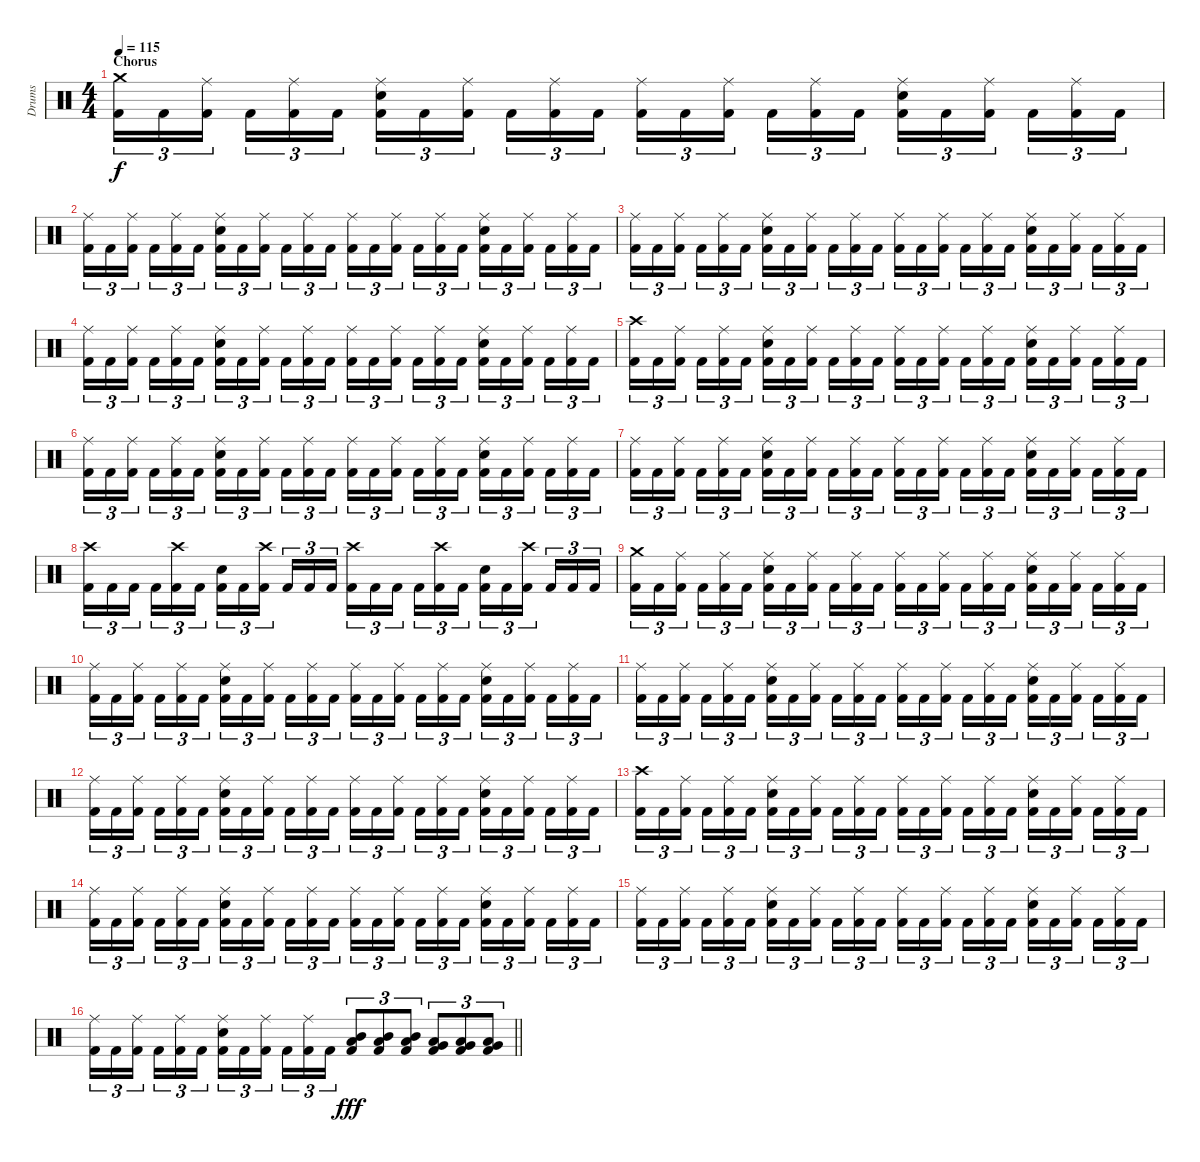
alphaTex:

\track ("Drums" "Drums") {instrument percussion}
\staff {score}
\articulation defaults
\ts (4 4)
\section ("" "Chorus")
\tempo 115
\clef neutral
\ks c
("Kick (hit) 2" "Crash medium (hit)").16{tu (3 2) dy f} "Kick (hit) 2".16{tu (3 2)} ("Kick (hit) 2" "Ride (middle)").16{tu (3 2)} "Kick (hit) 2".16{tu (3 2)} ("Kick (hit) 2" "Ride (middle)").16{tu (3 2)} "Kick (hit) 2".16{tu (3 2)} ("Kick (hit) 2" "Electric Snare (hit)" "Ride (middle)").16{tu (3 2)} "Kick (hit) 2".16{tu (3 2)} ("Kick (hit) 2" "Ride (middle)").16{tu (3 2)} "Kick (hit) 2".16{tu (3 2)} ("Kick (hit) 2" "Ride (middle)").16{tu (3 2)} "Kick (hit) 2".16{tu (3 2)} ("Kick (hit) 2" "Ride (middle)").16{tu (3 2)} "Kick (hit) 2".16{tu (3 2)} ("Kick (hit) 2" "Ride (middle)").16{tu (3 2)} "Kick (hit) 2".16{tu (3 2)} ("Kick (hit) 2" "Ride (middle)").16{tu (3 2)} "Kick (hit) 2".16{tu (3 2)} ("Kick (hit) 2" "Electric Snare (hit)" "Ride (middle)").16{tu (3 2)} "Kick (hit) 2".16{tu (3 2)} ("Kick (hit) 2" "Ride (middle)").16{tu (3 2)} "Kick (hit) 2".16{tu (3 2)} ("Kick (hit) 2" "Ride (middle)").16{tu (3 2)} "Kick (hit) 2".16{tu (3 2)} |
("Kick (hit) 2" "Ride (middle)").16{tu (3 2)} "Kick (hit) 2".16{tu (3 2)} ("Kick (hit) 2" "Ride (middle)").16{tu (3 2)} "Kick (hit) 2".16{tu (3 2)} ("Kick (hit) 2" "Ride (middle)").16{tu (3 2)} "Kick (hit) 2".16{tu (3 2)} ("Kick (hit) 2" "Electric Snare (hit)" "Ride (middle)").16{tu (3 2)} "Kick (hit) 2".16{tu (3 2)} ("Kick (hit) 2" "Ride (middle)").16{tu (3 2)} "Kick (hit) 2".16{tu (3 2)} ("Kick (hit) 2" "Ride (middle)").16{tu (3 2)} "Kick (hit) 2".16{tu (3 2)} ("Kick (hit) 2" "Ride (middle)").16{tu (3 2)} "Kick (hit) 2".16{tu (3 2)} ("Kick (hit) 2" "Ride (middle)").16{tu (3 2)} "Kick (hit) 2".16{tu (3 2)} ("Kick (hit) 2" "Ride (middle)").16{tu (3 2)} "Kick (hit) 2".16{tu (3 2)} ("Kick (hit) 2" "Electric Snare (hit)" "Ride (middle)").16{tu (3 2)} "Kick (hit) 2".16{tu (3 2)} ("Kick (hit) 2" "Ride (middle)").16{tu (3 2)} "Kick (hit) 2".16{tu (3 2)} ("Kick (hit) 2" "Ride (middle)").16{tu (3 2)} "Kick (hit) 2".16{tu (3 2)} |
("Kick (hit) 2" "Ride (middle)").16{tu (3 2)} "Kick (hit) 2".16{tu (3 2)} ("Kick (hit) 2" "Ride (middle)").16{tu (3 2)} "Kick (hit) 2".16{tu (3 2)} ("Kick (hit) 2" "Ride (middle)").16{tu (3 2)} "Kick (hit) 2".16{tu (3 2)} ("Kick (hit) 2" "Electric Snare (hit)" "Ride (middle)").16{tu (3 2)} "Kick (hit) 2".16{tu (3 2)} ("Kick (hit) 2" "Ride (middle)").16{tu (3 2)} "Kick (hit) 2".16{tu (3 2)} ("Kick (hit) 2" "Ride (middle)").16{tu (3 2)} "Kick (hit) 2".16{tu (3 2)} ("Kick (hit) 2" "Ride (middle)").16{tu (3 2)} "Kick (hit) 2".16{tu (3 2)} ("Kick (hit) 2" "Ride (middle)").16{tu (3 2)} "Kick (hit) 2".16{tu (3 2)} ("Kick (hit) 2" "Ride (middle)").16{tu (3 2)} "Kick (hit) 2".16{tu (3 2)} ("Kick (hit) 2" "Electric Snare (hit)" "Ride (middle)").16{tu (3 2)} "Kick (hit) 2".16{tu (3 2)} ("Kick (hit) 2" "Ride (middle)").16{tu (3 2)} "Kick (hit) 2".16{tu (3 2)} ("Kick (hit) 2" "Ride (middle)").16{tu (3 2)} "Kick (hit) 2".16{tu (3 2)} |
("Kick (hit) 2" "Ride (middle)").16{tu (3 2)} "Kick (hit) 2".16{tu (3 2)} ("Kick (hit) 2" "Ride (middle)").16{tu (3 2)} "Kick (hit) 2".16{tu (3 2)} ("Kick (hit) 2" "Ride (middle)").16{tu (3 2)} "Kick (hit) 2".16{tu (3 2)} ("Kick (hit) 2" "Electric Snare (hit)" "Ride (middle)").16{tu (3 2)} "Kick (hit) 2".16{tu (3 2)} ("Kick (hit) 2" "Ride (middle)").16{tu (3 2)} "Kick (hit) 2".16{tu (3 2)} ("Kick (hit) 2" "Ride (middle)").16{tu (3 2)} "Kick (hit) 2".16{tu (3 2)} ("Kick (hit) 2" "Ride (middle)").16{tu (3 2)} "Kick (hit) 2".16{tu (3 2)} ("Kick (hit) 2" "Ride (middle)").16{tu (3 2)} "Kick (hit) 2".16{tu (3 2)} ("Kick (hit) 2" "Ride (middle)").16{tu (3 2)} "Kick (hit) 2".16{tu (3 2)} ("Kick (hit) 2" "Electric Snare (hit)" "Ride (middle)").16{tu (3 2)} "Kick (hit) 2".16{tu (3 2)} ("Kick (hit) 2" "Ride (middle)").16{tu (3 2)} "Kick (hit) 2".16{tu (3 2)} ("Kick (hit) 2" "Ride (middle)").16{tu (3 2)} "Kick (hit) 2".16{tu (3 2)} |
("Kick (hit) 2" "Crash high (hit)").16{tu (3 2)} "Kick (hit) 2".16{tu (3 2)} ("Kick (hit) 2" "Ride (middle)").16{tu (3 2)} "Kick (hit) 2".16{tu (3 2)} ("Kick (hit) 2" "Ride (middle)").16{tu (3 2)} "Kick (hit) 2".16{tu (3 2)} ("Kick (hit) 2" "Electric Snare (hit)" "Ride (middle)").16{tu (3 2)} "Kick (hit) 2".16{tu (3 2)} ("Kick (hit) 2" "Ride (middle)").16{tu (3 2)} "Kick (hit) 2".16{tu (3 2)} ("Kick (hit) 2" "Ride (middle)").16{tu (3 2)} "Kick (hit) 2".16{tu (3 2)} ("Kick (hit) 2" "Ride (middle)").16{tu (3 2)} "Kick (hit) 2".16{tu (3 2)} ("Kick (hit) 2" "Ride (middle)").16{tu (3 2)} "Kick (hit) 2".16{tu (3 2)} ("Kick (hit) 2" "Ride (middle)").16{tu (3 2)} "Kick (hit) 2".16{tu (3 2)} ("Kick (hit) 2" "Electric Snare (hit)" "Ride (middle)").16{tu (3 2)} "Kick (hit) 2".16{tu (3 2)} ("Kick (hit) 2" "Ride (middle)").16{tu (3 2)} "Kick (hit) 2".16{tu (3 2)} ("Kick (hit) 2" "Ride (middle)").16{tu (3 2)} "Kick (hit) 2".16{tu (3 2)} |
("Kick (hit) 2" "Ride (middle)").16{tu (3 2)} "Kick (hit) 2".16{tu (3 2)} ("Kick (hit) 2" "Ride (middle)").16{tu (3 2)} "Kick (hit) 2".16{tu (3 2)} ("Kick (hit) 2" "Ride (middle)").16{tu (3 2)} "Kick (hit) 2".16{tu (3 2)} ("Kick (hit) 2" "Electric Snare (hit)" "Ride (middle)").16{tu (3 2)} "Kick (hit) 2".16{tu (3 2)} ("Kick (hit) 2" "Ride (middle)").16{tu (3 2)} "Kick (hit) 2".16{tu (3 2)} ("Kick (hit) 2" "Ride (middle)").16{tu (3 2)} "Kick (hit) 2".16{tu (3 2)} ("Kick (hit) 2" "Ride (middle)").16{tu (3 2)} "Kick (hit) 2".16{tu (3 2)} ("Kick (hit) 2" "Ride (middle)").16{tu (3 2)} "Kick (hit) 2".16{tu (3 2)} ("Kick (hit) 2" "Ride (middle)").16{tu (3 2)} "Kick (hit) 2".16{tu (3 2)} ("Kick (hit) 2" "Electric Snare (hit)" "Ride (middle)").16{tu (3 2)} "Kick (hit) 2".16{tu (3 2)} ("Kick (hit) 2" "Ride (middle)").16{tu (3 2)} "Kick (hit) 2".16{tu (3 2)} ("Kick (hit) 2" "Ride (middle)").16{tu (3 2)} "Kick (hit) 2".16{tu (3 2)} |
("Kick (hit) 2" "Ride (middle)").16{tu (3 2)} "Kick (hit) 2".16{tu (3 2)} ("Kick (hit) 2" "Ride (middle)").16{tu (3 2)} "Kick (hit) 2".16{tu (3 2)} ("Kick (hit) 2" "Ride (middle)").16{tu (3 2)} "Kick (hit) 2".16{tu (3 2)} ("Kick (hit) 2" "Electric Snare (hit)" "Ride (middle)").16{tu (3 2)} "Kick (hit) 2".16{tu (3 2)} ("Kick (hit) 2" "Ride (middle)").16{tu (3 2)} "Kick (hit) 2".16{tu (3 2)} ("Kick (hit) 2" "Ride (middle)").16{tu (3 2)} "Kick (hit) 2".16{tu (3 2)} ("Kick (hit) 2" "Ride (middle)").16{tu (3 2)} "Kick (hit) 2".16{tu (3 2)} ("Kick (hit) 2" "Ride (middle)").16{tu (3 2)} "Kick (hit) 2".16{tu (3 2)} ("Kick (hit) 2" "Ride (middle)").16{tu (3 2)} "Kick (hit) 2".16{tu (3 2)} ("Kick (hit) 2" "Electric Snare (hit)" "Ride (middle)").16{tu (3 2)} "Kick (hit) 2".16{tu (3 2)} ("Kick (hit) 2" "Ride (middle)").16{tu (3 2)} "Kick (hit) 2".16{tu (3 2)} ("Kick (hit) 2" "Ride (middle)").16{tu (3 2)} "Kick (hit) 2".16{tu (3 2)} |
("Kick (hit) 2" "Crash high (hit)").16{tu (3 2)} "Kick (hit) 2".16{tu (3 2)} "Kick (hit) 2".16{tu (3 2)} "Kick (hit) 2".16{tu (3 2)} ("Kick (hit) 2" "Crash high (hit)").16{tu (3 2)} "Kick (hit) 2".16{tu (3 2)} ("Kick (hit) 2" "Electric Snare (hit)").16{tu (3 2)} "Kick (hit) 2".16{tu (3 2)} ("Kick (hit) 2" "Crash high (hit)").16{tu (3 2)} "Kick (hit) 2".16{tu (3 2)} "Kick (hit) 2".16{tu (3 2)} "Kick (hit) 2".16{tu (3 2)} ("Kick (hit) 2" "Crash high (hit)").16{tu (3 2)} "Kick (hit) 2".16{tu (3 2)} "Kick (hit) 2".16{tu (3 2)} "Kick (hit) 2".16{tu (3 2)} ("Kick (hit) 2" "Crash high (hit)").16{tu (3 2)} "Kick (hit) 2".16{tu (3 2)} ("Kick (hit) 2" "Electric Snare (hit)").16{tu (3 2)} "Kick (hit) 2".16{tu (3 2)} ("Kick (hit) 2" "Crash high (hit)").16{tu (3 2)} "Kick (hit) 2".16{tu (3 2)} "Kick (hit) 2".16{tu (3 2)} "Kick (hit) 2".16{tu (3 2)} |
("Kick (hit) 2" "Crash medium (hit)").16{tu (3 2)} "Kick (hit) 2".16{tu (3 2)} ("Kick (hit) 2" "Ride (middle)").16{tu (3 2)} "Kick (hit) 2".16{tu (3 2)} ("Kick (hit) 2" "Ride (middle)").16{tu (3 2)} "Kick (hit) 2".16{tu (3 2)} ("Kick (hit) 2" "Electric Snare (hit)" "Ride (middle)").16{tu (3 2)} "Kick (hit) 2".16{tu (3 2)} ("Kick (hit) 2" "Ride (middle)").16{tu (3 2)} "Kick (hit) 2".16{tu (3 2)} ("Kick (hit) 2" "Ride (middle)").16{tu (3 2)} "Kick (hit) 2".16{tu (3 2)} ("Kick (hit) 2" "Ride (middle)").16{tu (3 2)} "Kick (hit) 2".16{tu (3 2)} ("Kick (hit) 2" "Ride (middle)").16{tu (3 2)} "Kick (hit) 2".16{tu (3 2)} ("Kick (hit) 2" "Ride (middle)").16{tu (3 2)} "Kick (hit) 2".16{tu (3 2)} ("Kick (hit) 2" "Electric Snare (hit)" "Ride (middle)").16{tu (3 2)} "Kick (hit) 2".16{tu (3 2)} ("Kick (hit) 2" "Ride (middle)").16{tu (3 2)} "Kick (hit) 2".16{tu (3 2)} ("Kick (hit) 2" "Ride (middle)").16{tu (3 2)} "Kick (hit) 2".16{tu (3 2)} |
("Kick (hit) 2" "Ride (middle)").16{tu (3 2)} "Kick (hit) 2".16{tu (3 2)} ("Kick (hit) 2" "Ride (middle)").16{tu (3 2)} "Kick (hit) 2".16{tu (3 2)} ("Kick (hit) 2" "Ride (middle)").16{tu (3 2)} "Kick (hit) 2".16{tu (3 2)} ("Kick (hit) 2" "Electric Snare (hit)" "Ride (middle)").16{tu (3 2)} "Kick (hit) 2".16{tu (3 2)} ("Kick (hit) 2" "Ride (middle)").16{tu (3 2)} "Kick (hit) 2".16{tu (3 2)} ("Kick (hit) 2" "Ride (middle)").16{tu (3 2)} "Kick (hit) 2".16{tu (3 2)} ("Kick (hit) 2" "Ride (middle)").16{tu (3 2)} "Kick (hit) 2".16{tu (3 2)} ("Kick (hit) 2" "Ride (middle)").16{tu (3 2)} "Kick (hit) 2".16{tu (3 2)} ("Kick (hit) 2" "Ride (middle)").16{tu (3 2)} "Kick (hit) 2".16{tu (3 2)} ("Kick (hit) 2" "Electric Snare (hit)" "Ride (middle)").16{tu (3 2)} "Kick (hit) 2".16{tu (3 2)} ("Kick (hit) 2" "Ride (middle)").16{tu (3 2)} "Kick (hit) 2".16{tu (3 2)} ("Kick (hit) 2" "Ride (middle)").16{tu (3 2)} "Kick (hit) 2".16{tu (3 2)} |
("Kick (hit) 2" "Ride (middle)").16{tu (3 2)} "Kick (hit) 2".16{tu (3 2)} ("Kick (hit) 2" "Ride (middle)").16{tu (3 2)} "Kick (hit) 2".16{tu (3 2)} ("Kick (hit) 2" "Ride (middle)").16{tu (3 2)} "Kick (hit) 2".16{tu (3 2)} ("Kick (hit) 2" "Electric Snare (hit)" "Ride (middle)").16{tu (3 2)} "Kick (hit) 2".16{tu (3 2)} ("Kick (hit) 2" "Ride (middle)").16{tu (3 2)} "Kick (hit) 2".16{tu (3 2)} ("Kick (hit) 2" "Ride (middle)").16{tu (3 2)} "Kick (hit) 2".16{tu (3 2)} ("Kick (hit) 2" "Ride (middle)").16{tu (3 2)} "Kick (hit) 2".16{tu (3 2)} ("Kick (hit) 2" "Ride (middle)").16{tu (3 2)} "Kick (hit) 2".16{tu (3 2)} ("Kick (hit) 2" "Ride (middle)").16{tu (3 2)} "Kick (hit) 2".16{tu (3 2)} ("Kick (hit) 2" "Electric Snare (hit)" "Ride (middle)").16{tu (3 2)} "Kick (hit) 2".16{tu (3 2)} ("Kick (hit) 2" "Ride (middle)").16{tu (3 2)} "Kick (hit) 2".16{tu (3 2)} ("Kick (hit) 2" "Ride (middle)").16{tu (3 2)} "Kick (hit) 2".16{tu (3 2)} |
("Kick (hit) 2" "Ride (middle)").16{tu (3 2)} "Kick (hit) 2".16{tu (3 2)} ("Kick (hit) 2" "Ride (middle)").16{tu (3 2)} "Kick (hit) 2".16{tu (3 2)} ("Kick (hit) 2" "Ride (middle)").16{tu (3 2)} "Kick (hit) 2".16{tu (3 2)} ("Kick (hit) 2" "Electric Snare (hit)" "Ride (middle)").16{tu (3 2)} "Kick (hit) 2".16{tu (3 2)} ("Kick (hit) 2" "Ride (middle)").16{tu (3 2)} "Kick (hit) 2".16{tu (3 2)} ("Kick (hit) 2" "Ride (middle)").16{tu (3 2)} "Kick (hit) 2".16{tu (3 2)} ("Kick (hit) 2" "Ride (middle)").16{tu (3 2)} "Kick (hit) 2".16{tu (3 2)} ("Kick (hit) 2" "Ride (middle)").16{tu (3 2)} "Kick (hit) 2".16{tu (3 2)} ("Kick (hit) 2" "Ride (middle)").16{tu (3 2)} "Kick (hit) 2".16{tu (3 2)} ("Kick (hit) 2" "Electric Snare (hit)" "Ride (middle)").16{tu (3 2)} "Kick (hit) 2".16{tu (3 2)} ("Kick (hit) 2" "Ride (middle)").16{tu (3 2)} "Kick (hit) 2".16{tu (3 2)} ("Kick (hit) 2" "Ride (middle)").16{tu (3 2)} "Kick (hit) 2".16{tu (3 2)} |
("Kick (hit) 2" "Crash high (hit)").16{tu (3 2)} "Kick (hit) 2".16{tu (3 2)} ("Kick (hit) 2" "Ride (middle)").16{tu (3 2)} "Kick (hit) 2".16{tu (3 2)} ("Kick (hit) 2" "Ride (middle)").16{tu (3 2)} "Kick (hit) 2".16{tu (3 2)} ("Kick (hit) 2" "Electric Snare (hit)" "Ride (middle)").16{tu (3 2)} "Kick (hit) 2".16{tu (3 2)} ("Kick (hit) 2" "Ride (middle)").16{tu (3 2)} "Kick (hit) 2".16{tu (3 2)} ("Kick (hit) 2" "Ride (middle)").16{tu (3 2)} "Kick (hit) 2".16{tu (3 2)} ("Kick (hit) 2" "Ride (middle)").16{tu (3 2)} "Kick (hit) 2".16{tu (3 2)} ("Kick (hit) 2" "Ride (middle)").16{tu (3 2)} "Kick (hit) 2".16{tu (3 2)} ("Kick (hit) 2" "Ride (middle)").16{tu (3 2)} "Kick (hit) 2".16{tu (3 2)} ("Kick (hit) 2" "Electric Snare (hit)" "Ride (middle)").16{tu (3 2)} "Kick (hit) 2".16{tu (3 2)} ("Kick (hit) 2" "Ride (middle)").16{tu (3 2)} "Kick (hit) 2".16{tu (3 2)} ("Kick (hit) 2" "Ride (middle)").16{tu (3 2)} "Kick (hit) 2".16{tu (3 2)} |
("Kick (hit) 2" "Ride (middle)").16{tu (3 2)} "Kick (hit) 2".16{tu (3 2)} ("Kick (hit) 2" "Ride (middle)").16{tu (3 2)} "Kick (hit) 2".16{tu (3 2)} ("Kick (hit) 2" "Ride (middle)").16{tu (3 2)} "Kick (hit) 2".16{tu (3 2)} ("Kick (hit) 2" "Electric Snare (hit)" "Ride (middle)").16{tu (3 2)} "Kick (hit) 2".16{tu (3 2)} ("Kick (hit) 2" "Ride (middle)").16{tu (3 2)} "Kick (hit) 2".16{tu (3 2)} ("Kick (hit) 2" "Ride (middle)").16{tu (3 2)} "Kick (hit) 2".16{tu (3 2)} ("Kick (hit) 2" "Ride (middle)").16{tu (3 2)} "Kick (hit) 2".16{tu (3 2)} ("Kick (hit) 2" "Ride (middle)").16{tu (3 2)} "Kick (hit) 2".16{tu (3 2)} ("Kick (hit) 2" "Ride (middle)").16{tu (3 2)} "Kick (hit) 2".16{tu (3 2)} ("Kick (hit) 2" "Electric Snare (hit)" "Ride (middle)").16{tu (3 2)} "Kick (hit) 2".16{tu (3 2)} ("Kick (hit) 2" "Ride (middle)").16{tu (3 2)} "Kick (hit) 2".16{tu (3 2)} ("Kick (hit) 2" "Ride (middle)").16{tu (3 2)} "Kick (hit) 2".16{tu (3 2)} |
("Kick (hit) 2" "Ride (middle)").16{tu (3 2)} "Kick (hit) 2".16{tu (3 2)} ("Kick (hit) 2" "Ride (middle)").16{tu (3 2)} "Kick (hit) 2".16{tu (3 2)} ("Kick (hit) 2" "Ride (middle)").16{tu (3 2)} "Kick (hit) 2".16{tu (3 2)} ("Kick (hit) 2" "Electric Snare (hit)" "Ride (middle)").16{tu (3 2)} "Kick (hit) 2".16{tu (3 2)} ("Kick (hit) 2" "Ride (middle)").16{tu (3 2)} "Kick (hit) 2".16{tu (3 2)} ("Kick (hit) 2" "Ride (middle)").16{tu (3 2)} "Kick (hit) 2".16{tu (3 2)} ("Kick (hit) 2" "Ride (middle)").16{tu (3 2)} "Kick (hit) 2".16{tu (3 2)} ("Kick (hit) 2" "Ride (middle)").16{tu (3 2)} "Kick (hit) 2".16{tu (3 2)} ("Kick (hit) 2" "Ride (middle)").16{tu (3 2)} "Kick (hit) 2".16{tu (3 2)} ("Kick (hit) 2" "Electric Snare (hit)" "Ride (middle)").16{tu (3 2)} "Kick (hit) 2".16{tu (3 2)} ("Kick (hit) 2" "Ride (middle)").16{tu (3 2)} "Kick (hit) 2".16{tu (3 2)} ("Kick (hit) 2" "Ride (middle)").16{tu (3 2)} "Kick (hit) 2".16{tu (3 2)} |
\barLineRight lightlight
("Kick (hit) 2" "Ride (middle)").16{tu (3 2)} "Kick (hit) 2".16{tu (3 2)} ("Kick (hit) 2" "Ride (middle)").16{tu (3 2)} "Kick (hit) 2".16{tu (3 2)} ("Kick (hit) 2" "Ride (middle)").16{tu (3 2)} "Kick (hit) 2".16{tu (3 2)} ("Kick (hit) 2" "Electric Snare (hit)" "Ride (middle)").16{tu (3 2)} "Kick (hit) 2".16{tu (3 2)} ("Kick (hit) 2" "Ride (middle)").16{tu (3 2)} "Kick (hit) 2".16{tu (3 2)} ("Kick (hit) 2" "Ride (middle)").16{tu (3 2)} "Kick (hit) 2".16{tu (3 2)} ("Kick (hit) 2" "Mid Tom (hit)" "Low Tom (hit)").8{tu (3 2) dy fff} ("Kick (hit) 2" "Mid Tom (hit)" "Low Tom (hit)").8{tu (3 2)} ("Kick (hit) 2" "Mid Tom (hit)" "Low Tom (hit)").8{tu (3 2)} ("Kick (hit) 2" "Low Tom (hit)" "Very Low Tom (hit)").8{tu (3 2)} ("Kick (hit) 2" "Low Tom (hit)" "Very Low Tom (hit)").8{tu (3 2)} ("Kick (hit) 2" "Low Tom (hit)" "Very Low Tom (hit)").8{tu (3 2)}
